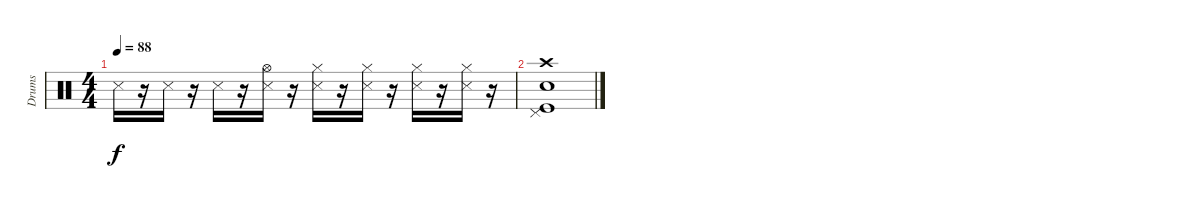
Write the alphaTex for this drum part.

\track ("Drums" "Drums") {instrument percussion}
\staff {score}
\articulation defaults
\ts (4 4)
\tempo 88
\clef neutral
\ks c "Snare (side stick) 3".16{dy f}
r.16 "Snare (side stick) 3".16 r.16 "Snare (side stick) 3".16 r.16 ("Hi-Hat (open)" "Snare (side stick) 3").16 r.16 ("Hi-Hat (closed)" "Snare (side stick) 3").16 r.16 ("Hi-Hat (closed)" "Snare (side stick) 3").16 r.16 ("Hi-Hat (closed)" "Snare (side stick) 3").16 r.16 ("Hi-Hat (closed)" "Snare (side stick) 3").16 r.16 |
("Kick (hit)" "Electric Snare (hit)" "Pedal Hi-Hat (hit)" "Crash high (hit)").1
